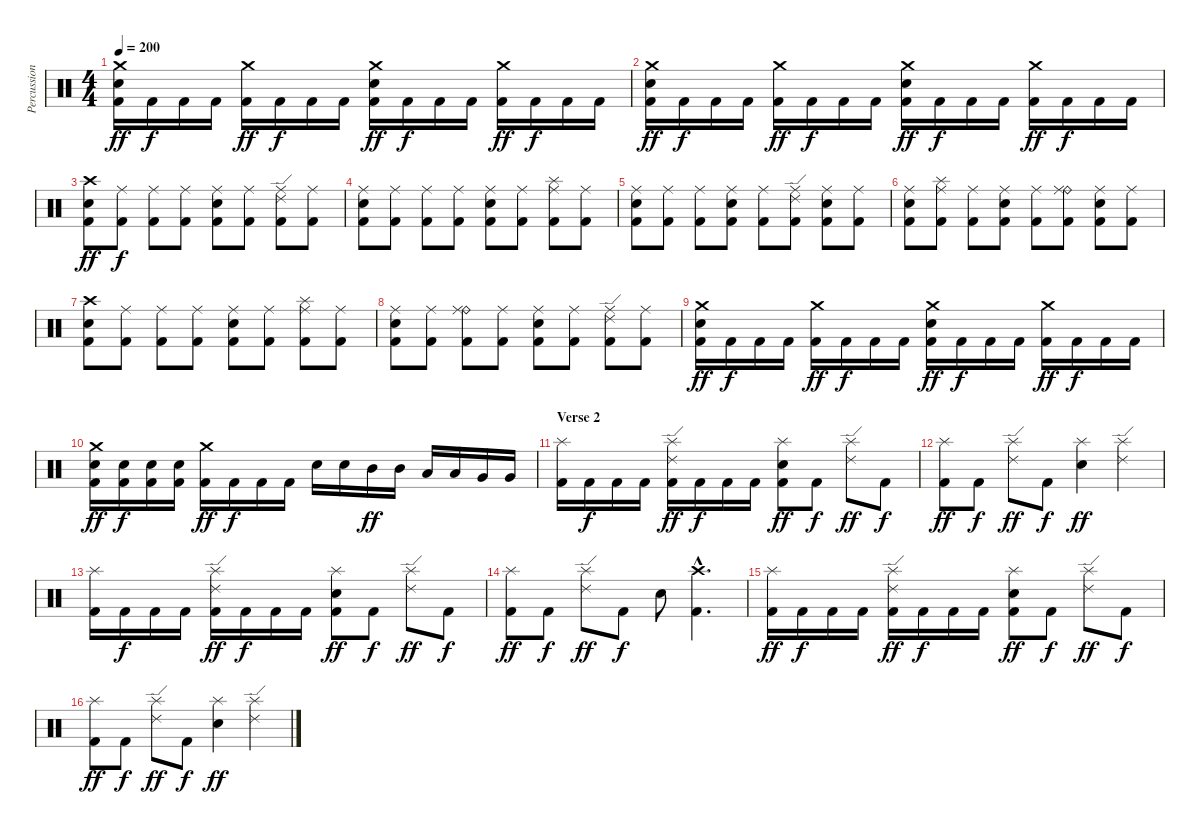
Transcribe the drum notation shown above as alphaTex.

\track ("Percussions" "Percussion") {instrument percussion}
\staff {score}
\articulation defaults
\ts (4 4)
\tempo 200
\clef neutral
\ks c
("Crash medium (hit)" "Electric Snare (hit)" "Kick (hit) 2").16{dy ff} "Kick (hit) 2".16{dy f} "Kick (hit) 2".16 "Kick (hit) 2".16 ("Crash medium (hit)" "Kick (hit) 2").16{dy ff} "Kick (hit) 2".16{dy f} "Kick (hit) 2".16 "Kick (hit) 2".16 ("Crash medium (hit)" "Electric Snare (hit)" "Kick (hit) 2").16{dy ff} "Kick (hit) 2".16{dy f} "Kick (hit) 2".16 "Kick (hit) 2".16 ("Crash medium (hit)" "Kick (hit) 2").16{dy ff} "Kick (hit) 2".16{dy f} "Kick (hit) 2".16 "Kick (hit) 2".16 |
("Crash medium (hit)" "Electric Snare (hit)" "Kick (hit) 2").16{dy ff} "Kick (hit) 2".16{dy f} "Kick (hit) 2".16 "Kick (hit) 2".16 ("Crash medium (hit)" "Kick (hit) 2").16{dy ff} "Kick (hit) 2".16{dy f} "Kick (hit) 2".16 "Kick (hit) 2".16 ("Crash medium (hit)" "Electric Snare (hit)" "Kick (hit) 2").16{dy ff} "Kick (hit) 2".16{dy f} "Kick (hit) 2".16 "Kick (hit) 2".16 ("Crash medium (hit)" "Kick (hit) 2").16{dy ff} "Kick (hit) 2".16{dy f} "Kick (hit) 2".16 "Kick (hit) 2".16 |
("Crash high (hit)" "Electric Snare (hit)" "Kick (hit) 2").8{dy ff} ("Ride (middle)" "Kick (hit) 2").8{dy f} ("Ride (middle)" "Kick (hit) 2").8 ("Ride (middle)" "Kick (hit) 2").8 ("Ride (middle)" "Electric Snare (hit)" "Kick (hit) 2").8 ("Ride (middle)" "Kick (hit) 2").8 ("Ride (edge) 2" "Ride (middle)" "Kick (hit) 2").8 ("Ride (middle)" "Kick (hit) 2").8 |
("Ride (middle)" "Electric Snare (hit)" "Kick (hit) 2").8 ("Ride (middle)" "Kick (hit) 2").8 ("Ride (middle)" "Kick (hit) 2").8 ("Ride (middle)" "Kick (hit) 2").8 ("Ride (middle)" "Electric Snare (hit)" "Kick (hit) 2").8 ("Ride (middle)" "Kick (hit) 2").8 ("Splash (hit)" "Ride (middle)" "Kick (hit) 2").8 ("Ride (middle)" "Kick (hit) 2").8 |
("Ride (middle)" "Electric Snare (hit)" "Kick (hit) 2").8 ("Ride (middle)" "Kick (hit) 2").8 ("Ride (middle)" "Kick (hit) 2").8 ("Ride (middle)" "Electric Snare (hit)" "Kick (hit) 2").8 ("Ride (middle)" "Kick (hit) 2").8 ("Ride (edge) 2" "Ride (middle)" "Kick (hit) 2").8 ("Ride (middle)" "Electric Snare (hit)" "Kick (hit) 2").8 ("Ride (middle)" "Kick (hit) 2").8 |
("Ride (middle)" "Electric Snare (hit)" "Kick (hit) 2").8 ("Splash (hit)" "Ride (middle)" "Kick (hit) 2").8 ("Ride (middle)" "Kick (hit) 2").8 ("Ride (middle)" "Electric Snare (hit)" "Kick (hit) 2").8 ("Ride (middle)" "Kick (hit) 2").8 ("Ride (bell)" "Ride (middle)" "Kick (hit) 2").8 ("Ride (middle)" "Electric Snare (hit)" "Kick (hit) 2").8 ("Ride (middle)" "Kick (hit) 2").8 |
("Crash high (hit)" "Electric Snare (hit)" "Kick (hit) 2").8 ("Ride (middle)" "Kick (hit) 2").8 ("Ride (middle)" "Kick (hit) 2").8 ("Ride (middle)" "Kick (hit) 2").8 ("Ride (middle)" "Electric Snare (hit)" "Kick (hit) 2").8 ("Ride (middle)" "Kick (hit) 2").8 ("Splash (hit)" "Ride (middle)" "Kick (hit) 2").8 ("Ride (middle)" "Kick (hit) 2").8 |
("Ride (middle)" "Electric Snare (hit)" "Kick (hit) 2").8 ("Ride (middle)" "Kick (hit) 2").8 ("Ride (bell)" "Ride (middle)" "Kick (hit) 2").8 ("Ride (middle)" "Kick (hit) 2").8 ("Ride (middle)" "Electric Snare (hit)" "Kick (hit) 2").8 ("Ride (middle)" "Kick (hit) 2").8 ("Ride (edge) 2" "Ride (middle)" "Kick (hit) 2").8 ("Ride (middle)" "Kick (hit) 2").8 |
("Crash medium (hit)" "Electric Snare (hit)" "Kick (hit) 2").16{dy ff} "Kick (hit) 2".16{dy f} "Kick (hit) 2".16 "Kick (hit) 2".16 ("Crash medium (hit)" "Kick (hit) 2").16{dy ff} "Kick (hit) 2".16{dy f} "Kick (hit) 2".16 "Kick (hit) 2".16 ("Crash medium (hit)" "Electric Snare (hit)" "Kick (hit) 2").16{dy ff} "Kick (hit) 2".16{dy f} "Kick (hit) 2".16 "Kick (hit) 2".16 ("Crash medium (hit)" "Kick (hit) 2").16{dy ff} "Kick (hit) 2".16{dy f} "Kick (hit) 2".16 "Kick (hit) 2".16 |
("Crash medium (hit)" "Electric Snare (hit)" "Kick (hit) 2").16{dy ff} ("Electric Snare (hit)" "Kick (hit) 2").16{dy f} ("Electric Snare (hit)" "Kick (hit) 2").16 ("Electric Snare (hit)" "Kick (hit) 2").16 ("Crash medium (hit)" "Kick (hit) 2").16{dy ff} "Kick (hit) 2".16{dy f} "Kick (hit) 2".16 "Kick (hit) 2".16 "Electric Snare (hit)".16 "Electric Snare (hit)".16 "Mid Tom (hit)".16{dy ff} "Mid Tom (hit)".16 "Low Tom (hit)".16 "Low Tom (hit)".16 "Very Low Tom (hit)".16 "Very Low Tom (hit)".16 |
\section ("" "Verse 2")
("Splash (hit)" "Kick (hit) 2").16 "Kick (hit) 2".16{dy f} "Kick (hit) 2".16 "Kick (hit) 2".16 ("Ride (edge) 2" "Splash (hit)" "Kick (hit) 2").16{dy ff} "Kick (hit) 2".16{dy f} "Kick (hit) 2".16 "Kick (hit) 2".16 ("Splash (hit)" "Electric Snare (hit)" "Kick (hit) 2").8{dy ff} "Kick (hit) 2".8{dy f} ("Ride (edge) 2" "Splash (hit)").8{dy ff} "Kick (hit) 2".8{dy f} |
("Splash (hit)" "Kick (hit) 2").8{dy ff} "Kick (hit) 2".8{dy f} ("Ride (edge) 2" "Splash (hit)").8{dy ff} "Kick (hit) 2".8{dy f} ("Splash (hit)" "Electric Snare (hit)").4{dy ff} ("Ride (edge) 2" "Splash (hit)").4 |
("Splash (hit)" "Kick (hit) 2").16 "Kick (hit) 2".16{dy f} "Kick (hit) 2".16 "Kick (hit) 2".16 ("Ride (edge) 2" "Splash (hit)" "Kick (hit) 2").16{dy ff} "Kick (hit) 2".16{dy f} "Kick (hit) 2".16 "Kick (hit) 2".16 ("Splash (hit)" "Electric Snare (hit)" "Kick (hit) 2").8{dy ff} "Kick (hit) 2".8{dy f} ("Ride (edge) 2" "Splash (hit)").8{dy ff} "Kick (hit) 2".8{dy f} |
("Splash (hit)" "Kick (hit) 2").8{dy ff} "Kick (hit) 2".8{dy f} ("Ride (edge) 2" "Splash (hit)").8{dy ff} "Kick (hit) 2".8{dy f} "Electric Snare (hit)".8 ("Crash high (hit)"{hac} "Kick (hit) 2"{hac}).4{d} |
("Splash (hit)" "Kick (hit) 2").16{dy ff} "Kick (hit) 2".16{dy f} "Kick (hit) 2".16 "Kick (hit) 2".16 ("Ride (edge) 2" "Splash (hit)" "Kick (hit) 2").16{dy ff} "Kick (hit) 2".16{dy f} "Kick (hit) 2".16 "Kick (hit) 2".16 ("Splash (hit)" "Electric Snare (hit)" "Kick (hit) 2").8{dy ff} "Kick (hit) 2".8{dy f} ("Ride (edge) 2" "Splash (hit)").8{dy ff} "Kick (hit) 2".8{dy f} |
("Splash (hit)" "Kick (hit) 2").8{dy ff} "Kick (hit) 2".8{dy f} ("Ride (edge) 2" "Splash (hit)").8{dy ff} "Kick (hit) 2".8{dy f} ("Splash (hit)" "Electric Snare (hit)").4{dy ff} ("Ride (edge) 2" "Splash (hit)").4
